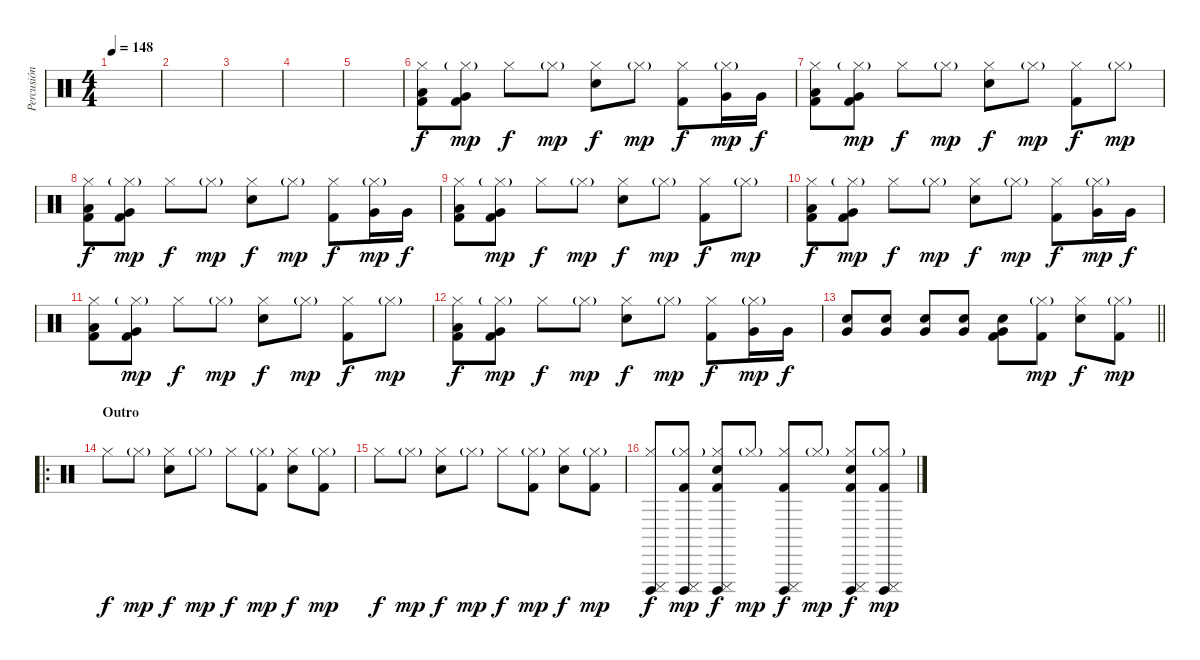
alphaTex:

\track ("Percusión" "Percusión") {instrument percussion}
\staff {score}
\articulation defaults
\ts (4 4)
\tempo 148
\clef neutral
\ks c
|
|
|
|
|
("Hi-Hat (closed)" "Low Tom (hit)" "Kick (hit) 2").8 ("Hi-Hat (closed)"{g} "Very Low Tom (hit)" "Kick (hit) 2").8{dy mp} "Hi-Hat (closed)".8{dy f} "Hi-Hat (closed)"{g}.8{dy mp} ("Hi-Hat (closed)" "Snare (hit) 2").8{dy f} "Hi-Hat (closed)"{g}.8{dy mp} ("Hi-Hat (closed)" "Kick (hit) 2").8{dy f} ("Hi-Hat (closed)"{g} "Very Low Tom (hit)").16{dy mp} "Very Low Tom (hit)".16{dy f} |
("Hi-Hat (closed)" "Low Tom (hit)" "Kick (hit) 2").8 ("Hi-Hat (closed)"{g} "Very Low Tom (hit)" "Kick (hit) 2").8{dy mp} "Hi-Hat (closed)".8{dy f} "Hi-Hat (closed)"{g}.8{dy mp} ("Hi-Hat (closed)" "Snare (hit) 2").8{dy f} "Hi-Hat (closed)"{g}.8{dy mp} ("Hi-Hat (closed)" "Kick (hit) 2").8{dy f} "Hi-Hat (closed)"{g}.8{dy mp} |
("Hi-Hat (closed)" "Low Tom (hit)" "Kick (hit) 2").8{dy f} ("Hi-Hat (closed)"{g} "Very Low Tom (hit)" "Kick (hit) 2").8{dy mp} "Hi-Hat (closed)".8{dy f} "Hi-Hat (closed)"{g}.8{dy mp} ("Hi-Hat (closed)" "Snare (hit) 2").8{dy f} "Hi-Hat (closed)"{g}.8{dy mp} ("Hi-Hat (closed)" "Kick (hit) 2").8{dy f} ("Hi-Hat (closed)"{g} "Very Low Tom (hit)").16{dy mp} "Very Low Tom (hit)".16{dy f} |
("Hi-Hat (closed)" "Low Tom (hit)" "Kick (hit) 2").8 ("Hi-Hat (closed)"{g} "Very Low Tom (hit)" "Kick (hit) 2").8{dy mp} "Hi-Hat (closed)".8{dy f} "Hi-Hat (closed)"{g}.8{dy mp} ("Hi-Hat (closed)" "Snare (hit) 2").8{dy f} "Hi-Hat (closed)"{g}.8{dy mp} ("Hi-Hat (closed)" "Kick (hit) 2").8{dy f} "Hi-Hat (closed)"{g}.8{dy mp} |
("Hi-Hat (closed)" "Low Tom (hit)" "Kick (hit) 2").8{dy f} ("Hi-Hat (closed)"{g} "Very Low Tom (hit)" "Kick (hit) 2").8{dy mp} "Hi-Hat (closed)".8{dy f} "Hi-Hat (closed)"{g}.8{dy mp} ("Hi-Hat (closed)" "Snare (hit) 2").8{dy f} "Hi-Hat (closed)"{g}.8{dy mp} ("Hi-Hat (closed)" "Kick (hit) 2").8{dy f} ("Hi-Hat (closed)"{g} "Very Low Tom (hit)").16{dy mp} "Very Low Tom (hit)".16{dy f} |
("Hi-Hat (closed)" "Low Tom (hit)" "Kick (hit) 2").8 ("Hi-Hat (closed)"{g} "Very Low Tom (hit)" "Kick (hit) 2").8{dy mp} "Hi-Hat (closed)".8{dy f} "Hi-Hat (closed)"{g}.8{dy mp} ("Hi-Hat (closed)" "Snare (hit) 2").8{dy f} "Hi-Hat (closed)"{g}.8{dy mp} ("Hi-Hat (closed)" "Kick (hit) 2").8{dy f} "Hi-Hat (closed)"{g}.8{dy mp} |
("Hi-Hat (closed)" "Low Tom (hit)" "Kick (hit) 2").8{dy f} ("Hi-Hat (closed)"{g} "Very Low Tom (hit)" "Kick (hit) 2").8{dy mp} "Hi-Hat (closed)".8{dy f} "Hi-Hat (closed)"{g}.8{dy mp} ("Hi-Hat (closed)" "Snare (hit) 2").8{dy f} "Hi-Hat (closed)"{g}.8{dy mp} ("Hi-Hat (closed)" "Kick (hit) 2").8{dy f} ("Hi-Hat (closed)"{g} "Very Low Tom (hit)").16{dy mp} "Very Low Tom (hit)".16{dy f} |
\barLineRight lightlight
("Very Low Tom (hit)" "Snare (hit) 2").8 ("Very Low Tom (hit)" "Snare (hit) 2").8 ("Very Low Tom (hit)" "Snare (hit) 2").8 ("Very Low Tom (hit)" "Snare (hit) 2").8 ("Very Low Tom (hit)" "Snare (hit) 2" "Kick (hit) 2").8 ("Hi-Hat (closed)"{g} "Kick (hit) 2").8{dy mp} ("Hi-Hat (closed)" "Snare (hit) 2").8{dy f} ("Hi-Hat (closed)"{g} "Kick (hit) 2").8{dy mp} |
\ro
\section ("" "Outro")
"Hi-Hat (closed)".8{dy f} "Hi-Hat (closed)"{g}.8{dy mp} ("Hi-Hat (closed)" "Snare (hit) 2").8{dy f} "Hi-Hat (closed)"{g}.8{dy mp} "Hi-Hat (closed)".8{dy f} ("Hi-Hat (closed)"{g} "Kick (hit) 2").8{dy mp} ("Hi-Hat (closed)" "Snare (hit) 2").8{dy f} ("Hi-Hat (closed)"{g} "Kick (hit) 2").8{dy mp} |
"Hi-Hat (closed)".8{dy f} "Hi-Hat (closed)"{g}.8{dy mp} ("Hi-Hat (closed)" "Snare (hit) 2").8{dy f} "Hi-Hat (closed)"{g}.8{dy mp} "Hi-Hat (closed)".8{dy f} ("Hi-Hat (closed)"{g} "Kick (hit) 2").8{dy mp} ("Hi-Hat (closed)" "Snare (hit) 2").8{dy f} ("Hi-Hat (closed)"{g} "Kick (hit) 2").8{dy mp} |
("Hi-Hat (closed)" "Cuica (open)" "Cuica (mute)").8{dy f} ("Hi-Hat (closed)"{g} "Cuica (open)" "Cuica (mute)" "Kick (hit) 2").8{dy mp} ("Hi-Hat (closed)" "Cuica (open)" "Cuica (mute)" "Snare (hit) 2" "Kick (hit) 2").8{dy f} "Hi-Hat (closed)"{g}.8{dy mp} ("Hi-Hat (closed)" "Cuica (open)" "Cuica (mute)" "Kick (hit) 2").8{dy f} "Hi-Hat (closed)"{g}.8{dy mp} ("Hi-Hat (closed)" "Cuica (open)" "Cuica (mute)" "Snare (hit) 2" "Kick (hit) 2").8{dy f} ("Hi-Hat (closed)"{g} "Cuica (open)" "Cuica (mute)" "Kick (hit) 2").8{dy mp}
